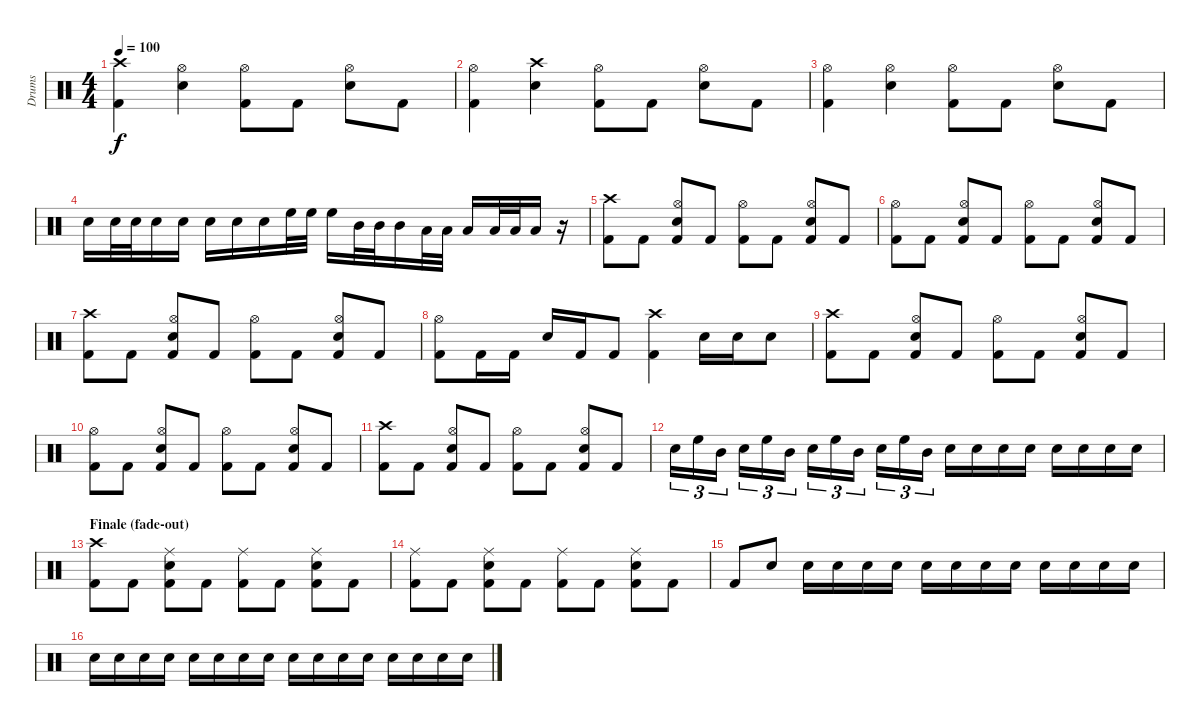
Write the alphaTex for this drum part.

\track ("Drums" "Drums") {instrument percussion}
\staff {score}
\articulation defaults
\ts (4 4)
\tempo 100
\clef neutral
\ks c
("Crash high (hit)" "Kick (hit) 2").4{dy f} ("Hi-Hat (open)" "Snare (hit) 2").4 ("Hi-Hat (open)" "Kick (hit) 2").8 "Kick (hit) 2".8 ("Hi-Hat (open)" "Snare (hit) 2").8 "Kick (hit) 2".8 |
("Hi-Hat (open)" "Kick (hit) 2").4 ("Crash high (hit)" "Snare (hit) 2").4 ("Hi-Hat (open)" "Kick (hit) 2").8 "Kick (hit) 2".8 ("Hi-Hat (open)" "Snare (hit) 2").8 "Kick (hit) 2".8 |
("Hi-Hat (open)" "Kick (hit) 2").4 ("Hi-Hat (open)" "Snare (hit) 2").4 ("Hi-Hat (open)" "Kick (hit) 2").8 "Kick (hit) 2".8 ("Hi-Hat (open)" "Snare (hit) 2").8 "Kick (hit) 2".8 |
"Snare (hit) 2".16 "Snare (hit) 2".32 "Snare (hit) 2".32 "Snare (hit) 2".16 "Snare (hit) 2".16 "Snare (hit) 2".16 "Snare (hit) 2".16 "Snare (hit) 2".16 "High Floor Tom (hit)".32 "High Floor Tom (hit)".32 "High Floor Tom (hit)".16 "Mid Tom (hit)".32 "Mid Tom (hit)".32 "Mid Tom (hit)".16 "Low Tom (hit)".32 "Low Tom (hit)".32 "Low Tom (hit)".16 "Low Floor Tom (hit)".32 "Low Floor Tom (hit)".32 "Low Floor Tom (hit)".16 r.16 |
("Crash high (hit)" "Kick (hit) 2").8 "Kick (hit) 2".8 ("Hi-Hat (open)" "Snare (hit) 2" "Kick (hit) 2").8 "Kick (hit) 2".8 ("Hi-Hat (open)" "Kick (hit) 2").8 "Kick (hit) 2".8 ("Hi-Hat (open)" "Snare (hit) 2" "Kick (hit) 2").8 "Kick (hit) 2".8 |
("Hi-Hat (open)" "Kick (hit) 2").8 "Kick (hit) 2".8 ("Hi-Hat (open)" "Snare (hit) 2" "Kick (hit) 2").8 "Kick (hit) 2".8 ("Hi-Hat (open)" "Kick (hit) 2").8 "Kick (hit) 2".8 ("Hi-Hat (open)" "Snare (hit) 2" "Kick (hit) 2").8 "Kick (hit) 2".8 |
("Crash high (hit)" "Kick (hit) 2").8 "Kick (hit) 2".8 ("Hi-Hat (open)" "Snare (hit) 2" "Kick (hit) 2").8 "Kick (hit) 2".8 ("Hi-Hat (open)" "Kick (hit) 2").8 "Kick (hit) 2".8 ("Hi-Hat (open)" "Snare (hit) 2" "Kick (hit) 2").8 "Kick (hit) 2".8 |
("Hi-Hat (open)" "Kick (hit) 2").8 "Kick (hit) 2".16 "Kick (hit) 2".16 "Snare (hit) 2".16 "Kick (hit) 2".16 "Kick (hit) 2".8 ("Crash high (hit)" "Kick (hit) 2").4 "Snare (hit) 2".16 "Snare (hit) 2".16 "Snare (hit) 2".8 |
("Crash high (hit)" "Kick (hit) 2").8 "Kick (hit) 2".8 ("Hi-Hat (open)" "Snare (hit) 2" "Kick (hit) 2").8 "Kick (hit) 2".8 ("Hi-Hat (open)" "Kick (hit) 2").8 "Kick (hit) 2".8 ("Hi-Hat (open)" "Snare (hit) 2" "Kick (hit) 2").8 "Kick (hit) 2".8 |
("Hi-Hat (open)" "Kick (hit) 2").8 "Kick (hit) 2".8 ("Hi-Hat (open)" "Snare (hit) 2" "Kick (hit) 2").8 "Kick (hit) 2".8 ("Hi-Hat (open)" "Kick (hit) 2").8 "Kick (hit) 2".8 ("Hi-Hat (open)" "Snare (hit) 2" "Kick (hit) 2").8 "Kick (hit) 2".8 |
("Crash high (hit)" "Kick (hit) 2").8 "Kick (hit) 2".8 ("Hi-Hat (open)" "Snare (hit) 2" "Kick (hit) 2").8 "Kick (hit) 2".8 ("Hi-Hat (open)" "Kick (hit) 2").8 "Kick (hit) 2".8 ("Hi-Hat (open)" "Snare (hit) 2" "Kick (hit) 2").8 "Kick (hit) 2".8 |
"Snare (hit) 2".16{tu (3 2)} "High Floor Tom (hit)".16{tu (3 2)} "Mid Tom (hit)".16{tu (3 2)} "Snare (hit) 2".16{tu (3 2)} "High Floor Tom (hit)".16{tu (3 2)} "Mid Tom (hit)".16{tu (3 2)} "Snare (hit) 2".16{tu (3 2)} "High Floor Tom (hit)".16{tu (3 2)} "Mid Tom (hit)".16{tu (3 2)} "Snare (hit) 2".16{tu (3 2)} "High Floor Tom (hit)".16{tu (3 2)} "Mid Tom (hit)".16{tu (3 2)} "Snare (hit) 2".16 "Snare (hit) 2".16 "Snare (hit) 2".16 "Snare (hit) 2".16 "Snare (hit) 2".16 "Snare (hit) 2".16 "Snare (hit) 2".16 "Snare (hit) 2".16 |
\section ("" "Finale (fade-out)")
("Crash high (hit)" "Kick (hit) 2").8 "Kick (hit) 2".8 ("Ride (middle)" "Snare (hit) 2" "Kick (hit) 2").8 "Kick (hit) 2".8 ("Ride (middle)" "Kick (hit) 2").8 "Kick (hit) 2".8 ("Ride (middle)" "Snare (hit) 2" "Kick (hit) 2").8 "Kick (hit) 2".8 |
("Ride (middle)" "Kick (hit) 2").8 "Kick (hit) 2".8 ("Ride (middle)" "Snare (hit) 2" "Kick (hit) 2").8 "Kick (hit) 2".8 ("Ride (middle)" "Kick (hit) 2").8 "Kick (hit) 2".8 ("Ride (middle)" "Snare (hit) 2" "Kick (hit) 2").8 "Kick (hit) 2".8 |
"Kick (hit) 2".8 "Snare (hit) 2".8 "Snare (hit) 2".16 "Snare (hit) 2".16 "Snare (hit) 2".16 "Snare (hit) 2".16 "Snare (hit) 2".16 "Snare (hit) 2".16 "Snare (hit) 2".16 "Snare (hit) 2".16 "Snare (hit) 2".16 "Snare (hit) 2".16 "Snare (hit) 2".16 "Snare (hit) 2".16 |
"Snare (hit) 2".16 "Snare (hit) 2".16 "Snare (hit) 2".16 "Snare (hit) 2".16 "Snare (hit) 2".16 "Snare (hit) 2".16 "Snare (hit) 2".16 "Snare (hit) 2".16 "Snare (hit) 2".16 "Snare (hit) 2".16 "Snare (hit) 2".16 "Snare (hit) 2".16 "Snare (hit) 2".16 "Snare (hit) 2".16 "Snare (hit) 2".16 "Snare (hit) 2".16
